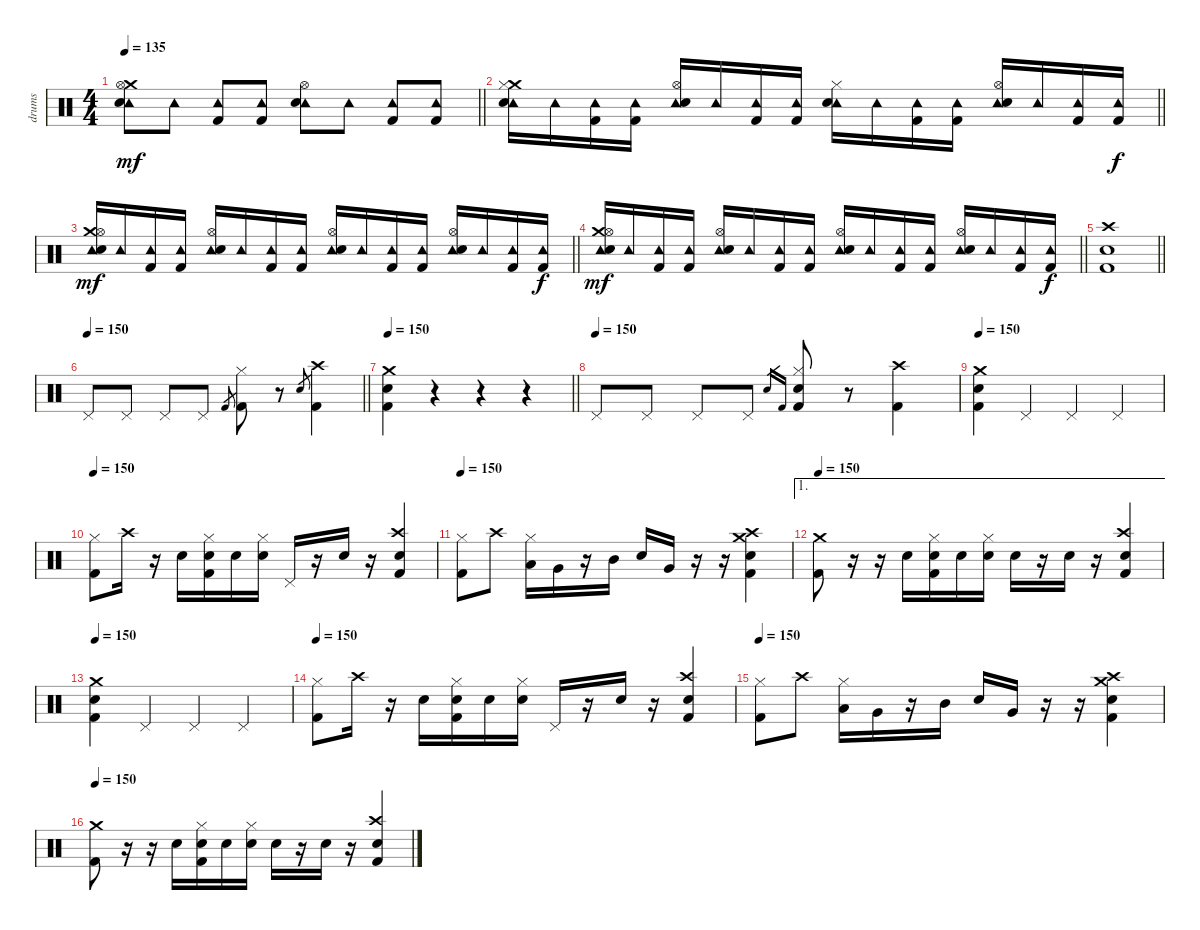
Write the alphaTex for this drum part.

\track ("drums" "drums") {instrument percussion}
\staff {score}
\articulation defaults
\ts (4 4)
\tempo 135
\clef neutral
\barLineRight lightlight
\ks c
("Tambourine (hit)" "Crash medium (hit)" "Hi-Hat (open)" "Electric Snare (hit)").8{dy mf} "Tambourine (hit)".8 ("Tambourine (hit)" "Kick (hit) 2").8 ("Tambourine (hit)" "Kick (hit) 2").8 ("Tambourine (hit)" "Hi-Hat (open)" "Electric Snare (hit)").8 "Tambourine (hit)".8 ("Tambourine (hit)" "Kick (hit) 2").8 ("Tambourine (hit)" "Kick (hit) 2").8 |
\barLineRight lightlight
("Tambourine (hit)" "Crash medium (hit)" "Hi-Hat (closed)" "Electric Snare (hit)").16 "Tambourine (hit)".16 ("Tambourine (hit)" "Kick (hit) 2").16 ("Tambourine (hit)" "Kick (hit) 2").16 ("Tambourine (hit)" "Hi-Hat (open)" "Electric Snare (hit)").16 "Tambourine (hit)".16 ("Tambourine (hit)" "Kick (hit) 2").16 ("Tambourine (hit)" "Kick (hit) 2").16 ("Tambourine (hit)" "Hi-Hat (closed)" "Electric Snare (hit)").16 "Tambourine (hit)".16 ("Tambourine (hit)" "Kick (hit) 2").16 ("Tambourine (hit)" "Kick (hit) 2").16 ("Tambourine (hit)" "Hi-Hat (open)" "Electric Snare (hit)").16 "Tambourine (hit)".16 ("Tambourine (hit)" "Kick (hit) 2").16 ("Tambourine (hit)" "Kick (hit) 2").16{dy f} |
\barLineRight lightlight
("Tambourine (hit)" "Crash medium (hit)" "Hi-Hat (open)" "Electric Snare (hit)").16{dy mf} "Tambourine (hit)".16 ("Tambourine (hit)" "Kick (hit) 2").16 ("Tambourine (hit)" "Kick (hit) 2").16 ("Tambourine (hit)" "Hi-Hat (open)" "Electric Snare (hit)").16 "Tambourine (hit)".16 ("Tambourine (hit)" "Kick (hit) 2").16 ("Tambourine (hit)" "Kick (hit) 2").16 ("Tambourine (hit)" "Hi-Hat (open)" "Electric Snare (hit)").16 "Tambourine (hit)".16 ("Tambourine (hit)" "Kick (hit) 2").16 ("Tambourine (hit)" "Kick (hit) 2").16 ("Tambourine (hit)" "Hi-Hat (open)" "Electric Snare (hit)").16 "Tambourine (hit)".16 ("Tambourine (hit)" "Kick (hit) 2").16 ("Tambourine (hit)" "Kick (hit) 2").16{dy f} |
\barLineRight lightlight
("Tambourine (hit)" "Crash medium (hit)" "Hi-Hat (open)" "Electric Snare (hit)").16{dy mf} "Tambourine (hit)".16 ("Tambourine (hit)" "Kick (hit) 2").16 ("Tambourine (hit)" "Kick (hit) 2").16 ("Tambourine (hit)" "Hi-Hat (open)" "Electric Snare (hit)").16 "Tambourine (hit)".16 ("Tambourine (hit)" "Kick (hit) 2").16 ("Tambourine (hit)" "Kick (hit) 2").16 ("Tambourine (hit)" "Hi-Hat (open)" "Electric Snare (hit)").16 "Tambourine (hit)".16 ("Tambourine (hit)" "Kick (hit) 2").16 ("Tambourine (hit)" "Kick (hit) 2").16 ("Tambourine (hit)" "Hi-Hat (open)" "Electric Snare (hit)").16 "Tambourine (hit)".16 ("Tambourine (hit)" "Kick (hit) 2").16 ("Tambourine (hit)" "Kick (hit) 2").16{dy f} |
\barLineRight lightlight
("Crash high (hit)" "Snare (hit) 2" "Kick (hit) 2").1 |
\tempo 150
\barLineRight lightlight "Pedal Hi-Hat (hit)".8 "Pedal Hi-Hat (hit)".8 "Pedal Hi-Hat (hit)".8 "Pedal Hi-Hat (hit)".8 "Kick (hit) 2".8{gr}
("Hi-Hat (closed)" "Kick (hit) 2").8 r.8 "Snare (hit) 2".8{gr} ("Crash high (hit)" "Kick (hit) 2").4 |
\tempo 150
\barLineRight lightlight
("Crash medium (hit)" "Snare (hit) 2" "Kick (hit) 2").4 r.4 r.4 r.4 |
\tempo (150)
"Pedal Hi-Hat (hit)".8 "Pedal Hi-Hat (hit)".8 "Pedal Hi-Hat (hit)".8 "Pedal Hi-Hat (hit)".8 "Snare (hit) 2".16{gr} "Kick (hit) 2".16{gr} ("Hi-Hat (closed)" "Snare (hit) 2" "Kick (hit) 2").8 r.8 ("Crash high (hit)" "Kick (hit) 2").4 |
\tempo 150
("Crash medium (hit)" "Snare (hit) 2" "Kick (hit) 2").4 "Pedal Hi-Hat (hit)".4 "Pedal Hi-Hat (hit)".4 "Pedal Hi-Hat (hit)".4 |
\tempo 150
("Hi-Hat (closed)" "Kick (hit) 2").8 "Crash high (hit)".16 r.16 "Snare (hit) 2".16 ("Hi-Hat (closed)" "Snare (hit) 2" "Kick (hit) 2").16 "Snare (hit) 2".16 ("Hi-Hat (closed)" "Snare (hit) 2").16 "Pedal Hi-Hat (hit)".16 r.16 "Snare (hit) 2".16 r.16 ("Crash high (hit)" "Snare (hit) 2" "Kick (hit) 2").4 |
\tempo 150
("Hi-Hat (closed)" "Kick (hit) 2").8 "Crash high (hit)".8 ("Hi-Hat (closed)" "Low Floor Tom (hit)").16 "Very Low Tom (hit)".16 r.16 "Mid Tom (hit)".16 "Snare (hit) 2".16 "Very Low Tom (hit)".16 r.16 r.16 ("Crash high (hit)" "Snare (hit) 2" "Crash medium (hit)" "Kick (hit) 2").4 |
\ae 1
\tempo 150
("Crash medium (hit)" "Kick (hit) 2").8 r.16 r.16 "Snare (hit) 2".16 ("Hi-Hat (closed)" "Snare (hit) 2" "Kick (hit) 2").16 "Snare (hit) 2".16 ("Hi-Hat (closed)" "Snare (hit) 2").16 "Snare (hit) 2".16 r.16 "Snare (hit) 2".16 r.16 ("Crash high (hit)" "Snare (hit) 2" "Kick (hit) 2").4 |
\tempo 150
("Crash medium (hit)" "Snare (hit) 2" "Kick (hit) 2").4 "Pedal Hi-Hat (hit)".4 "Pedal Hi-Hat (hit)".4 "Pedal Hi-Hat (hit)".4 |
\tempo 150
("Hi-Hat (closed)" "Kick (hit) 2").8 "Crash high (hit)".16 r.16 "Snare (hit) 2".16 ("Hi-Hat (closed)" "Snare (hit) 2" "Kick (hit) 2").16 "Snare (hit) 2".16 ("Hi-Hat (closed)" "Snare (hit) 2").16 "Pedal Hi-Hat (hit)".16 r.16 "Snare (hit) 2".16 r.16 ("Crash high (hit)" "Snare (hit) 2" "Kick (hit) 2").4 |
\tempo 150
("Hi-Hat (closed)" "Kick (hit) 2").8 "Crash high (hit)".8 ("Hi-Hat (closed)" "Low Floor Tom (hit)").16 "Very Low Tom (hit)".16 r.16 "Mid Tom (hit)".16 "Snare (hit) 2".16 "Very Low Tom (hit)".16 r.16 r.16 ("Crash high (hit)" "Snare (hit) 2" "Crash medium (hit)" "Kick (hit) 2").4 |
\tempo 150
("Crash medium (hit)" "Kick (hit) 2").8 r.16 r.16 "Snare (hit) 2".16 ("Hi-Hat (closed)" "Snare (hit) 2" "Kick (hit) 2").16 "Snare (hit) 2".16 ("Hi-Hat (closed)" "Snare (hit) 2").16 "Snare (hit) 2".16 r.16 "Snare (hit) 2".16 r.16 ("Crash high (hit)" "Snare (hit) 2" "Kick (hit) 2").4
